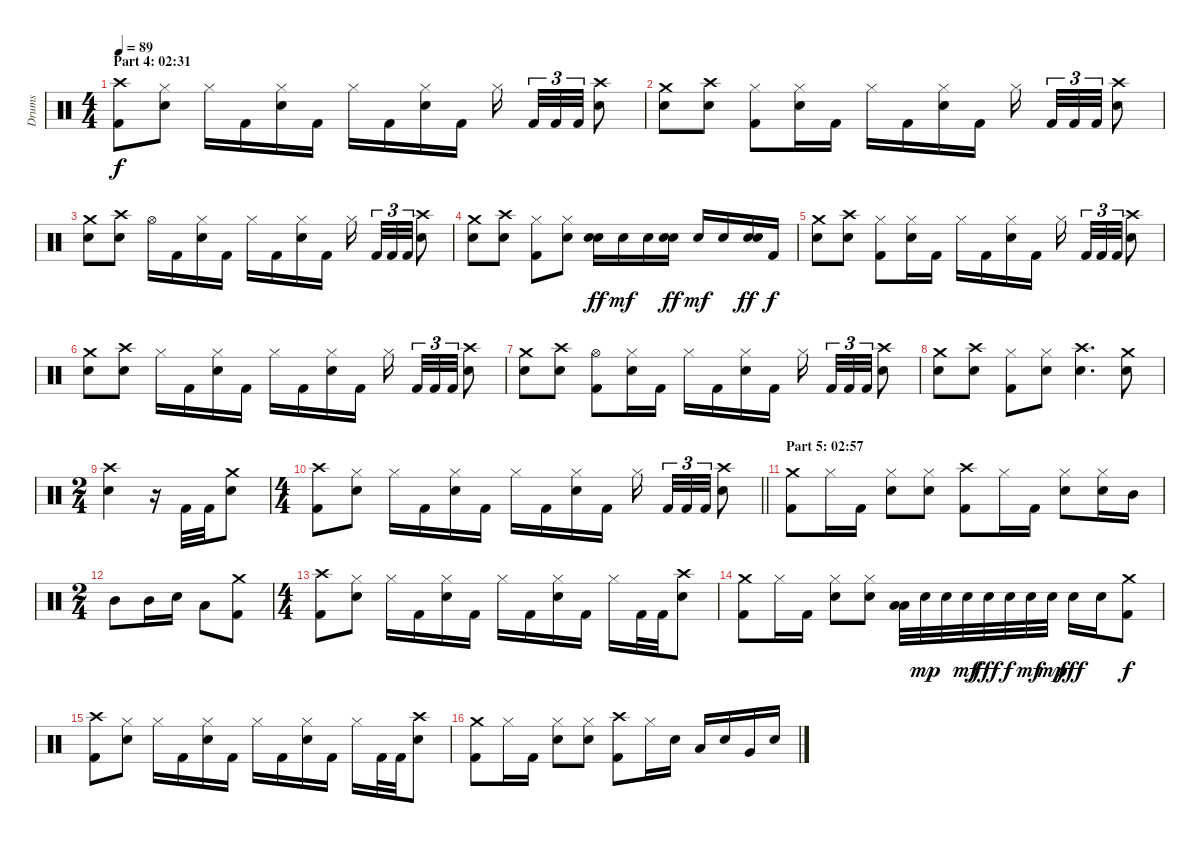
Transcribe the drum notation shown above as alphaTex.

\track ("Drums" "Drums") {instrument percussion}
\staff {score}
\articulation defaults
\ts (4 4)
\section ("" "Part 4: 02:31")
\tempo 89
\clef neutral
\ks c
("Crash high (hit)" "Kick (hit) 2").8{dy f} ("Hi-Hat (closed)" "Electric Snare (hit)").8 "Hi-Hat (closed)".16 "Kick (hit) 2".16 ("Hi-Hat (closed)" "Electric Snare (hit)").16 "Kick (hit) 2".16 "Hi-Hat (closed)".16 "Kick (hit) 2".16 ("Hi-Hat (closed)" "Electric Snare (hit)").16 "Kick (hit) 2".16 "Hi-Hat (closed)".16{beam splitsecondary} "Kick (hit) 2".32{tu (3 2)} "Kick (hit) 2".32{tu (3 2)} "Kick (hit) 2".32{tu (3 2)} ("Crash high (hit)" "Electric Snare (hit)").8 |
("Crash medium (hit)" "Electric Snare (hit)").8 ("Crash high (hit)" "Electric Snare (hit)").8 ("Hi-Hat (closed)" "Kick (hit) 2").8 ("Hi-Hat (closed)" "Electric Snare (hit)").16 "Kick (hit) 2".16 "Hi-Hat (closed)".16 "Kick (hit) 2".16 ("Hi-Hat (closed)" "Electric Snare (hit)").16 "Kick (hit) 2".16 "Hi-Hat (closed)".16{beam splitsecondary} "Kick (hit) 2".32{tu (3 2)} "Kick (hit) 2".32{tu (3 2)} "Kick (hit) 2".32{tu (3 2)} ("Crash high (hit)" "Electric Snare (hit)").8 |
("Crash medium (hit)" "Electric Snare (hit)").8 ("Crash high (hit)" "Electric Snare (hit)").8 "Hi-Hat (open)".16 "Kick (hit) 2".16 ("Hi-Hat (closed)" "Electric Snare (hit)").16 "Kick (hit) 2".16 "Hi-Hat (closed)".16 "Kick (hit) 2".16 ("Hi-Hat (closed)" "Electric Snare (hit)").16 "Kick (hit) 2".16 "Hi-Hat (closed)".16{beam splitsecondary} "Kick (hit) 2".32{tu (3 2)} "Kick (hit) 2".32{tu (3 2)} "Kick (hit) 2".32{tu (3 2)} ("Crash high (hit)" "Electric Snare (hit)").8 |
("Crash medium (hit)" "Electric Snare (hit)").8 ("Crash high (hit)" "Electric Snare (hit)").8 ("Hi-Hat (closed)" "Kick (hit) 2").8 ("Hi-Hat (closed)" "Electric Snare (hit)").8 ("Electric Snare (hit)" "Electric Snare (hit)").16{bd 30 dy ff} "Electric Snare (hit)".16{dy mf} "Electric Snare (hit)".16 ("Electric Snare (hit)" "Electric Snare (hit)").16{bd 30 dy ff} "Electric Snare (hit)".16{dy mf} "Electric Snare (hit)".16 ("Electric Snare (hit)" "Electric Snare (hit)").16{bd 30 dy ff} "Kick (hit) 2".16{dy f} |
("Crash medium (hit)" "Electric Snare (hit)").8 ("Crash high (hit)" "Electric Snare (hit)").8 ("Hi-Hat (closed)" "Kick (hit) 2").8 ("Hi-Hat (closed)" "Electric Snare (hit)").16 "Kick (hit) 2".16 "Hi-Hat (closed)".16 "Kick (hit) 2".16 ("Hi-Hat (closed)" "Electric Snare (hit)").16 "Kick (hit) 2".16 "Hi-Hat (closed)".16{beam splitsecondary} "Kick (hit) 2".32{tu (3 2)} "Kick (hit) 2".32{tu (3 2)} "Kick (hit) 2".32{tu (3 2)} ("Crash high (hit)" "Electric Snare (hit)").8 |
("Crash medium (hit)" "Electric Snare (hit)").8 ("Crash high (hit)" "Electric Snare (hit)").8 "Hi-Hat (closed)".16 "Kick (hit) 2".16 ("Hi-Hat (closed)" "Electric Snare (hit)").16 "Kick (hit) 2".16 "Hi-Hat (closed)".16 "Kick (hit) 2".16 ("Hi-Hat (closed)" "Electric Snare (hit)").16 "Kick (hit) 2".16 "Hi-Hat (closed)".16{beam splitsecondary} "Kick (hit) 2".32{tu (3 2)} "Kick (hit) 2".32{tu (3 2)} "Kick (hit) 2".32{tu (3 2)} ("Crash high (hit)" "Electric Snare (hit)").8 |
("Crash medium (hit)" "Electric Snare (hit)").8 ("Crash high (hit)" "Electric Snare (hit)").8 ("Hi-Hat (open)" "Kick (hit) 2").8 ("Hi-Hat (closed)" "Electric Snare (hit)").16 "Kick (hit) 2".16 "Hi-Hat (closed)".16 "Kick (hit) 2".16 ("Hi-Hat (closed)" "Electric Snare (hit)").16 "Kick (hit) 2".16 "Hi-Hat (closed)".16{beam splitsecondary} "Kick (hit) 2".32{tu (3 2)} "Kick (hit) 2".32{tu (3 2)} "Kick (hit) 2".32{tu (3 2)} ("Crash high (hit)" "Electric Snare (hit)").8 |
("Crash medium (hit)" "Electric Snare (hit)").8 ("Crash high (hit)" "Electric Snare (hit)").8 ("Hi-Hat (closed)" "Kick (hit) 2").8 ("Hi-Hat (closed)" "Electric Snare (hit)").8 ("Crash high (hit)" "Electric Snare (hit)").4{d} ("Crash medium (hit)" "Electric Snare (hit)").8 |
\ts (2 4)
("Crash high (hit)" "Electric Snare (hit)").4 r.16 "Kick (hit) 2".32 "Kick (hit) 2".32 ("Crash medium (hit)" "Electric Snare (hit)").8 |
\ts (4 4)
\barLineRight lightlight
("Crash high (hit)" "Kick (hit) 2").8 ("Hi-Hat (closed)" "Electric Snare (hit)").8 "Hi-Hat (closed)".16 "Kick (hit) 2".16 ("Hi-Hat (closed)" "Electric Snare (hit)").16 "Kick (hit) 2".16 "Hi-Hat (closed)".16 "Kick (hit) 2".16 ("Hi-Hat (closed)" "Electric Snare (hit)").16 "Kick (hit) 2".16 "Hi-Hat (closed)".16{beam splitsecondary} "Kick (hit) 2".32{tu (3 2)} "Kick (hit) 2".32{tu (3 2)} "Kick (hit) 2".32{tu (3 2)} ("Crash high (hit)" "Electric Snare (hit)").8 |
\section ("" "Part 5: 02:57")
("Crash medium (hit)" "Kick (hit) 2").8 "Hi-Hat (closed)".16 "Kick (hit) 2".16 ("Hi-Hat (closed)" "Electric Snare (hit)").8 ("Hi-Hat (closed)" "Electric Snare (hit)").8 ("Crash high (hit)" "Kick (hit) 2").8 "Hi-Hat (closed)".16 "Kick (hit) 2".16 ("Hi-Hat (closed)" "Electric Snare (hit)").8 ("Hi-Hat (closed)" "Electric Snare (hit)").16 "Mid Tom (hit)".16 |
\ts (2 4)
"Mid Tom (hit)".8 "Mid Tom (hit)".16 "Electric Snare (hit)".16 "Low Tom (hit)".8 ("Crash medium (hit)" "Kick (hit) 2").8 |
\ts (4 4)
("Crash high (hit)" "Kick (hit) 2").8 ("Hi-Hat (closed)" "Electric Snare (hit)").8 "Hi-Hat (closed)".16 "Kick (hit) 2".16 ("Hi-Hat (closed)" "Electric Snare (hit)").16 "Kick (hit) 2".16 "Hi-Hat (closed)".16 "Kick (hit) 2".16 ("Hi-Hat (closed)" "Electric Snare (hit)").16 "Kick (hit) 2".16 "Hi-Hat (closed)".16 "Kick (hit) 2".32 "Kick (hit) 2".32 ("Crash high (hit)" "Electric Snare (hit)").8 |
("Crash medium (hit)" "Kick (hit) 2").8 "Hi-Hat (closed)".16 "Kick (hit) 2".16 ("Hi-Hat (closed)" "Electric Snare (hit)").8 ("Hi-Hat (closed)" "Electric Snare (hit)").8 ("Low Tom (hit)" "Low Floor Tom (hit)").32 "Electric Snare (hit)".32{dy mp} "Electric Snare (hit)".32 "Electric Snare (hit)".32{dy mf} "Electric Snare (hit)".32{dy fff} "Electric Snare (hit)".32{dy f} "Electric Snare (hit)".32{dy mf} "Electric Snare (hit)".32{dy mp} "Electric Snare (hit)".16{dy fff} "Electric Snare (hit)".16 ("Crash medium (hit)" "Kick (hit) 2").8{dy f} |
("Crash high (hit)" "Kick (hit) 2").8 ("Hi-Hat (closed)" "Electric Snare (hit)").8 "Hi-Hat (closed)".16 "Kick (hit) 2".16 ("Hi-Hat (closed)" "Electric Snare (hit)").16 "Kick (hit) 2".16 "Hi-Hat (closed)".16 "Kick (hit) 2".16 ("Hi-Hat (closed)" "Electric Snare (hit)").16 "Kick (hit) 2".16 "Hi-Hat (closed)".16 "Kick (hit) 2".32 "Kick (hit) 2".32 ("Crash high (hit)" "Electric Snare (hit)").8 |
("Crash medium (hit)" "Kick (hit) 2").8 "Hi-Hat (closed)".16 "Kick (hit) 2".16 ("Hi-Hat (closed)" "Electric Snare (hit)").8 ("Hi-Hat (closed)" "Electric Snare (hit)").8 ("Crash high (hit)" "Kick (hit) 2").8 "Hi-Hat (closed)".16 "Electric Snare (hit)".16 "Low Tom (hit)".16 "Electric Snare (hit)".16 "Very Low Tom (hit)".16 "Electric Snare (hit)".16
